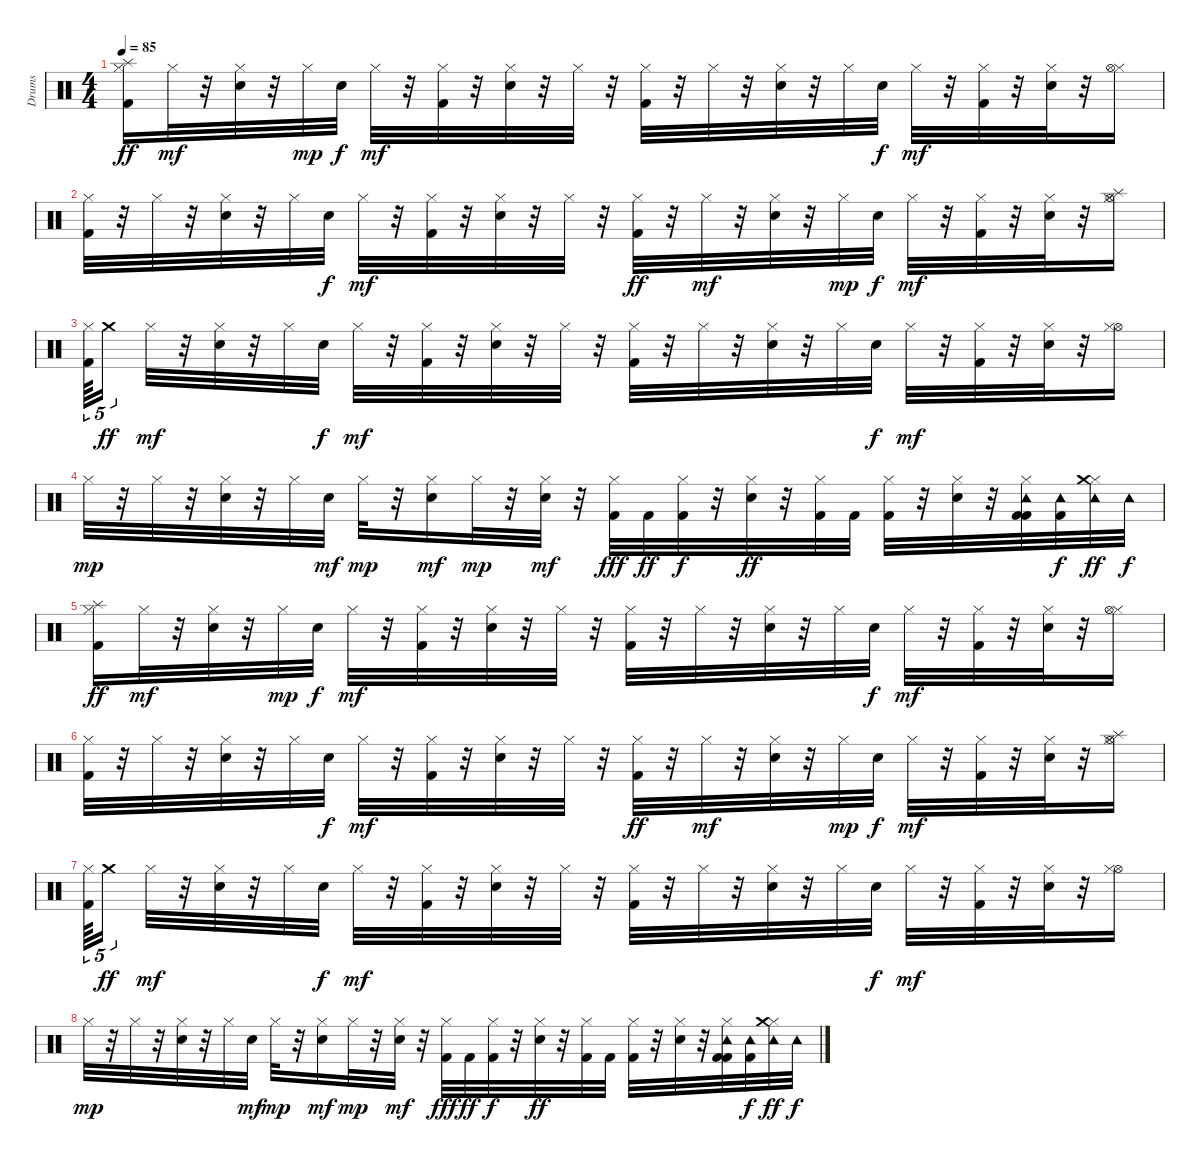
\track ("Drums" "Drums") {instrument percussion}
\staff {score}
\articulation defaults
\ts (4 4)
\tempo 85
\clef neutral
\ks c
("Splash (hit)" "Kick (hit) 2" "Hi-Hat (closed)").16{dy ff} "Hi-Hat (closed)".32{dy mf} r.32 ("Hi-Hat (closed)" "Electric Snare (hit)").32 r.32 "Hi-Hat (closed)".32{dy mp} "Electric Snare (hit)".32{dy f} "Hi-Hat (closed)".32{dy mf} r.32 ("Kick (hit) 2" "Hi-Hat (closed)").32 r.32 ("Electric Snare (hit)" "Hi-Hat (closed)").32 r.32 "Hi-Hat (closed)".32 r.32 ("Kick (hit) 2" "Hi-Hat (closed)").32 r.32 "Hi-Hat (closed)".32 r.32 ("Electric Snare (hit)" "Hi-Hat (closed)").32 r.32 "Hi-Hat (closed)".32 "Electric Snare (hit)".32{dy f} "Hi-Hat (closed)".32{dy mf} r.32 ("Kick (hit) 2" "Hi-Hat (closed)").32 r.32 ("Electric Snare (hit)" "Hi-Hat (closed)").32 r.32 ("Hi-Hat (closed)" "Hi-Hat (open)").16 |
("Kick (hit) 2" "Hi-Hat (closed)").32 r.32 "Hi-Hat (closed)".32 r.32 ("Electric Snare (hit)" "Hi-Hat (closed)").32 r.32 "Hi-Hat (closed)".32 "Electric Snare (hit)".32{dy f} "Hi-Hat (closed)".32{dy mf} r.32 ("Kick (hit) 2" "Hi-Hat (closed)").32 r.32 ("Hi-Hat (closed)" "Electric Snare (hit)").32 r.32 "Hi-Hat (closed)".32 r.32 ("Hi-Hat (closed)" "Kick (hit) 2").32{dy ff} r.32 "Hi-Hat (closed)".32{dy mf} r.32 ("Electric Snare (hit)" "Hi-Hat (closed)").32 r.32 "Hi-Hat (closed)".32{dy mp} "Electric Snare (hit)".32{dy f} "Hi-Hat (closed)".32{dy mf} r.32 ("Kick (hit) 2" "Hi-Hat (closed)").32 r.32 ("Electric Snare (hit)" "Hi-Hat (closed)").32 r.32 ("Hi-Hat (open)" "Hi-Hat (closed)" "Splash (hit)").16 |
("Kick (hit) 2" "Hi-Hat (closed)").64{tu (5 4)} "Crash medium (hit)".16{tu (5 4) dy ff beam splitsecondary} "Hi-Hat (closed)".32{dy mf} r.32 ("Electric Snare (hit)" "Hi-Hat (closed)").32 r.32 "Hi-Hat (closed)".32 "Electric Snare (hit)".32{dy f} "Hi-Hat (closed)".32{dy mf} r.32 ("Kick (hit) 2" "Hi-Hat (closed)").32 r.32 ("Electric Snare (hit)" "Hi-Hat (closed)").32 r.32 "Hi-Hat (closed)".32 r.32 ("Kick (hit) 2" "Hi-Hat (closed)").32 r.32 "Hi-Hat (closed)".32 r.32 ("Electric Snare (hit)" "Hi-Hat (closed)").32 r.32 "Hi-Hat (closed)".32 "Electric Snare (hit)".32{dy f} "Hi-Hat (closed)".32{dy mf} r.32 ("Kick (hit) 2" "Hi-Hat (closed)").32 r.32 ("Electric Snare (hit)" "Hi-Hat (closed)").32 r.32 ("Hi-Hat (open)" "Hi-Hat (closed)").16 |
"Hi-Hat (closed)".32{dy mp} r.32 "Hi-Hat (closed)".32 r.32 ("Hi-Hat (closed)" "Electric Snare (hit)").32 r.32 "Hi-Hat (closed)".32 "Electric Snare (hit)".32{dy mf} "Hi-Hat (closed)".32{dy mp} r.32 ("Electric Snare (hit)" "Hi-Hat (closed)").16{dy mf} "Hi-Hat (closed)".32{dy mp} r.32 ("Electric Snare (hit)" "Hi-Hat (closed)").32{dy mf} r.32 ("Hi-Hat (closed)" "Kick (hit) 2").32{dy fff} "Kick (hit) 2".32{dy ff} ("Hi-Hat (closed)" "Kick (hit) 2").32{dy f} r.32 ("Hi-Hat (closed)" "Electric Snare (hit)").32{dy ff} r.32 ("Hi-Hat (closed)" "Kick (hit) 2").32 "Kick (hit) 2".32 ("Hi-Hat (closed)" "Kick (hit) 2").32 r.32 ("Hi-Hat (closed)" "Electric Snare (hit)").32 r.32 ("Hi-Hat (closed)" "Kick (hit) 2" "Kick (hit) 2" "Tambourine (hit)").32 ("Kick (hit) 2" "Tambourine (hit)").32{dy f} ("Hi-Hat (closed)" "Tambourine (hit)" "Crash medium (hit)").32{dy ff} "Tambourine (hit)".32{dy f} |
("Splash (hit)" "Kick (hit) 2" "Hi-Hat (closed)").16{dy ff} "Hi-Hat (closed)".32{dy mf} r.32 ("Hi-Hat (closed)" "Electric Snare (hit)").32 r.32 "Hi-Hat (closed)".32{dy mp} "Electric Snare (hit)".32{dy f} "Hi-Hat (closed)".32{dy mf} r.32 ("Kick (hit) 2" "Hi-Hat (closed)").32 r.32 ("Electric Snare (hit)" "Hi-Hat (closed)").32 r.32 "Hi-Hat (closed)".32 r.32 ("Kick (hit) 2" "Hi-Hat (closed)").32 r.32 "Hi-Hat (closed)".32 r.32 ("Electric Snare (hit)" "Hi-Hat (closed)").32 r.32 "Hi-Hat (closed)".32 "Electric Snare (hit)".32{dy f} "Hi-Hat (closed)".32{dy mf} r.32 ("Kick (hit) 2" "Hi-Hat (closed)").32 r.32 ("Electric Snare (hit)" "Hi-Hat (closed)").32 r.32 ("Hi-Hat (closed)" "Hi-Hat (open)").16 |
("Kick (hit) 2" "Hi-Hat (closed)").32 r.32 "Hi-Hat (closed)".32 r.32 ("Electric Snare (hit)" "Hi-Hat (closed)").32 r.32 "Hi-Hat (closed)".32 "Electric Snare (hit)".32{dy f} "Hi-Hat (closed)".32{dy mf} r.32 ("Kick (hit) 2" "Hi-Hat (closed)").32 r.32 ("Hi-Hat (closed)" "Electric Snare (hit)").32 r.32 "Hi-Hat (closed)".32 r.32 ("Hi-Hat (closed)" "Kick (hit) 2").32{dy ff} r.32 "Hi-Hat (closed)".32{dy mf} r.32 ("Electric Snare (hit)" "Hi-Hat (closed)").32 r.32 "Hi-Hat (closed)".32{dy mp} "Electric Snare (hit)".32{dy f} "Hi-Hat (closed)".32{dy mf} r.32 ("Kick (hit) 2" "Hi-Hat (closed)").32 r.32 ("Electric Snare (hit)" "Hi-Hat (closed)").32 r.32 ("Hi-Hat (open)" "Hi-Hat (closed)" "Splash (hit)").16 |
("Kick (hit) 2" "Hi-Hat (closed)").64{tu (5 4)} "Crash medium (hit)".16{tu (5 4) dy ff beam splitsecondary} "Hi-Hat (closed)".32{dy mf} r.32 ("Electric Snare (hit)" "Hi-Hat (closed)").32 r.32 "Hi-Hat (closed)".32 "Electric Snare (hit)".32{dy f} "Hi-Hat (closed)".32{dy mf} r.32 ("Kick (hit) 2" "Hi-Hat (closed)").32 r.32 ("Electric Snare (hit)" "Hi-Hat (closed)").32 r.32 "Hi-Hat (closed)".32 r.32 ("Kick (hit) 2" "Hi-Hat (closed)").32 r.32 "Hi-Hat (closed)".32 r.32 ("Electric Snare (hit)" "Hi-Hat (closed)").32 r.32 "Hi-Hat (closed)".32 "Electric Snare (hit)".32{dy f} "Hi-Hat (closed)".32{dy mf} r.32 ("Kick (hit) 2" "Hi-Hat (closed)").32 r.32 ("Electric Snare (hit)" "Hi-Hat (closed)").32 r.32 ("Hi-Hat (open)" "Hi-Hat (closed)").16 |
"Hi-Hat (closed)".32{dy mp} r.32 "Hi-Hat (closed)".32 r.32 ("Hi-Hat (closed)" "Electric Snare (hit)").32 r.32 "Hi-Hat (closed)".32 "Electric Snare (hit)".32{dy mf} "Hi-Hat (closed)".32{dy mp} r.32 ("Electric Snare (hit)" "Hi-Hat (closed)").16{dy mf} "Hi-Hat (closed)".32{dy mp} r.32 ("Electric Snare (hit)" "Hi-Hat (closed)").32{dy mf} r.32 ("Hi-Hat (closed)" "Kick (hit) 2").32{dy fff} "Kick (hit) 2".32{dy ff} ("Hi-Hat (closed)" "Kick (hit) 2").32{dy f} r.32 ("Hi-Hat (closed)" "Electric Snare (hit)").32{dy ff} r.32 ("Hi-Hat (closed)" "Kick (hit) 2").32 "Kick (hit) 2".32 ("Hi-Hat (closed)" "Kick (hit) 2").32 r.32 ("Hi-Hat (closed)" "Electric Snare (hit)").32 r.32 ("Hi-Hat (closed)" "Kick (hit) 2" "Kick (hit) 2" "Tambourine (hit)").32 ("Kick (hit) 2" "Tambourine (hit)").32{dy f} ("Hi-Hat (closed)" "Tambourine (hit)" "Crash medium (hit)").32{dy ff} "Tambourine (hit)".32{dy f}
